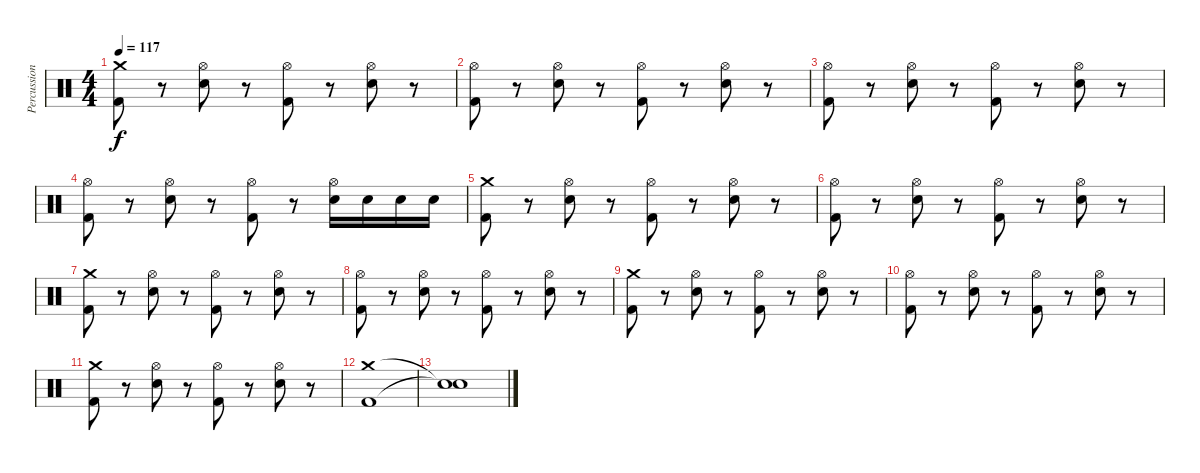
\track ("Percussions" "Percussion") {instrument percussion}
\staff {score}
\articulation defaults
\ts (4 4)
\tempo 117
\clef neutral
\ks c
("Crash medium (hit)" "Kick (hit) 2").8{dy f} r.8 ("Hi-Hat (open)" "Electric Snare (hit)").8 r.8 ("Hi-Hat (open)" "Kick (hit) 2").8 r.8 ("Hi-Hat (open)" "Electric Snare (hit)").8 r.8 |
("Hi-Hat (open)" "Kick (hit) 2").8 r.8 ("Hi-Hat (open)" "Electric Snare (hit)").8 r.8 ("Hi-Hat (open)" "Kick (hit) 2").8 r.8 ("Hi-Hat (open)" "Electric Snare (hit)").8 r.8 |
("Hi-Hat (open)" "Kick (hit) 2").8 r.8 ("Hi-Hat (open)" "Electric Snare (hit)").8 r.8 ("Hi-Hat (open)" "Kick (hit) 2").8 r.8 ("Hi-Hat (open)" "Electric Snare (hit)").8 r.8 |
("Hi-Hat (open)" "Kick (hit) 2").8 r.8 ("Hi-Hat (open)" "Electric Snare (hit)").8 r.8 ("Hi-Hat (open)" "Kick (hit) 2").8 r.8 ("Hi-Hat (open)" "Electric Snare (hit)").16 "Electric Snare (hit)".16 "Electric Snare (hit)".16 "Electric Snare (hit)".16 |
("Crash medium (hit)" "Kick (hit) 2").8 r.8 ("Hi-Hat (open)" "Electric Snare (hit)").8 r.8 ("Hi-Hat (open)" "Kick (hit) 2").8 r.8 ("Hi-Hat (open)" "Electric Snare (hit)").8 r.8 |
("Hi-Hat (open)" "Kick (hit) 2").8 r.8 ("Hi-Hat (open)" "Electric Snare (hit)").8 r.8 ("Hi-Hat (open)" "Kick (hit) 2").8 r.8 ("Hi-Hat (open)" "Electric Snare (hit)").8 r.8 |
("Crash medium (hit)" "Kick (hit) 2").8 r.8 ("Hi-Hat (open)" "Electric Snare (hit)").8 r.8 ("Hi-Hat (open)" "Kick (hit) 2").8 r.8 ("Hi-Hat (open)" "Electric Snare (hit)").8 r.8 |
("Hi-Hat (open)" "Kick (hit) 2").8 r.8 ("Hi-Hat (open)" "Electric Snare (hit)").8 r.8 ("Hi-Hat (open)" "Kick (hit) 2").8 r.8 ("Hi-Hat (open)" "Electric Snare (hit)").8 r.8 |
("Crash medium (hit)" "Kick (hit) 2").8 r.8 ("Hi-Hat (open)" "Electric Snare (hit)").8 r.8 ("Hi-Hat (open)" "Kick (hit) 2").8 r.8 ("Hi-Hat (open)" "Electric Snare (hit)").8 r.8 |
("Hi-Hat (open)" "Kick (hit) 2").8 r.8 ("Hi-Hat (open)" "Electric Snare (hit)").8 r.8 ("Hi-Hat (open)" "Kick (hit) 2").8 r.8 ("Hi-Hat (open)" "Electric Snare (hit)").8 r.8 |
("Crash medium (hit)" "Kick (hit) 2").8 r.8 ("Hi-Hat (open)" "Electric Snare (hit)").8 r.8 ("Hi-Hat (open)" "Kick (hit) 2").8 r.8 ("Hi-Hat (open)" "Electric Snare (hit)").8 r.8 |
("Crash medium (hit)" "Kick (hit) 2").1 |
("Snare (hit)"{t} "Snare (hit)"{t}).1
